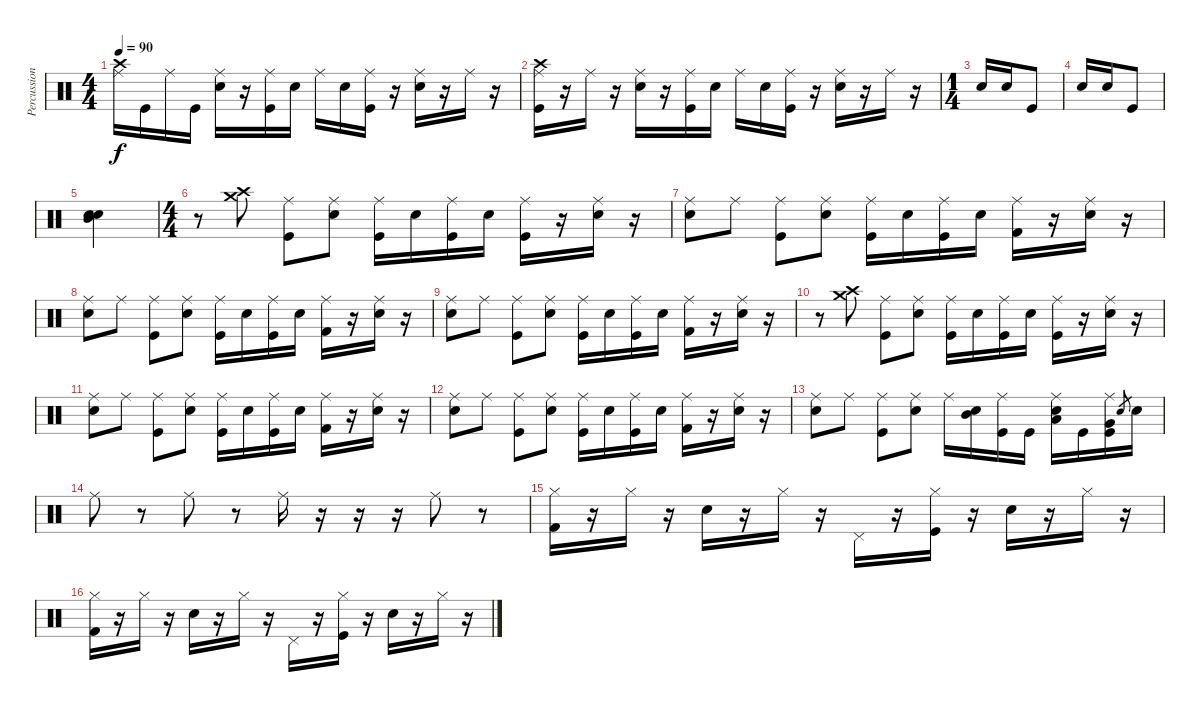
\track ("Percussions" "Percussion") {instrument percussion}
\staff {score}
\articulation defaults
\ts (4 4)
\tempo 90
\clef neutral
\ks c
("Ride (middle)" "Crash high (hit)").16{dy f} "Kick (hit)".16 "Ride (middle)".16 "Kick (hit)".16 ("Ride (middle)" "Electric Snare (hit)").16 r.16 ("Ride (middle)" "Kick (hit)").16 "Electric Snare (hit)".16 "Ride (middle)".16 "Electric Snare (hit)".16 ("Ride (middle)" "Kick (hit)").16 r.16 ("Ride (middle)" "Electric Snare (hit)").16 r.16 "Ride (middle)".16 r.16 |
("Ride (middle)" "Crash high (hit)" "Kick (hit)").16 r.16 "Ride (middle)".16 r.16 ("Ride (middle)" "Electric Snare (hit)").16 r.16 ("Ride (middle)" "Kick (hit)").16 "Electric Snare (hit)".16 "Ride (middle)".16 "Electric Snare (hit)".16 ("Ride (middle)" "Kick (hit)").16 r.16 ("Ride (middle)" "Electric Snare (hit)").16 r.16 "Ride (middle)".16 r.16 |
\ts (1 4)
"Electric Snare (hit)".16 "Electric Snare (hit)".16 "Kick (hit)".8 |
"Electric Snare (hit)".16 "Electric Snare (hit)".16 "Kick (hit)".8 |
("Mid Tom (hit)" "Electric Snare (hit)" "Electric Snare (hit)").4 |
\ts (4 4)
r.8{volume 14} ("Crash medium (hit)" "Crash high (hit)").8 ("Ride (middle)" "Kick (hit)").8 ("Ride (middle)" "Electric Snare (hit)").8 ("Ride (middle)" "Kick (hit)").16 "Electric Snare (hit)".16 ("Ride (middle)" "Kick (hit)").16 "Electric Snare (hit)".16 ("Ride (middle)" "Kick (hit)").16 r.16 ("Ride (middle)" "Electric Snare (hit)").16 r.16 |
("Ride (middle)" "Electric Snare (hit)"{tr (40 16)}).8 "Ride (middle)".8 ("Ride (middle)" "Kick (hit)").8 ("Ride (middle)" "Electric Snare (hit)").8 ("Ride (middle)" "Kick (hit)").16 "Electric Snare (hit)".16 ("Ride (middle)" "Kick (hit)").16 "Electric Snare (hit)".16 ("Ride (middle)" "Kick (hit) 2").16 r.16 ("Ride (middle)" "Electric Snare (hit)").16 r.16 |
("Ride (middle)" "Electric Snare (hit)"{tr (40 16)}).8 "Ride (middle)".8 ("Ride (middle)" "Kick (hit)").8 ("Ride (middle)" "Electric Snare (hit)").8 ("Ride (middle)" "Kick (hit)").16 "Electric Snare (hit)".16 ("Ride (middle)" "Kick (hit)").16 "Electric Snare (hit)".16 ("Ride (middle)" "Kick (hit) 2").16 r.16 ("Ride (middle)" "Electric Snare (hit)").16 r.16 |
("Ride (middle)" "Electric Snare (hit)"{tr (40 16)}).8 "Ride (middle)".8 ("Ride (middle)" "Kick (hit)").8 ("Ride (middle)" "Electric Snare (hit)").8 ("Ride (middle)" "Kick (hit)").16 "Electric Snare (hit)".16 ("Ride (middle)" "Kick (hit)").16 "Electric Snare (hit)".16 ("Ride (middle)" "Kick (hit) 2").16 r.16 ("Ride (middle)" "Electric Snare (hit)").16 r.16 |
r.8{volume 14} ("Crash medium (hit)" "Crash high (hit)").8 ("Ride (middle)" "Kick (hit)").8 ("Ride (middle)" "Electric Snare (hit)").8 ("Ride (middle)" "Kick (hit)").16 "Electric Snare (hit)".16 ("Ride (middle)" "Kick (hit)").16 "Electric Snare (hit)".16 ("Ride (middle)" "Kick (hit)").16 r.16 ("Ride (middle)" "Electric Snare (hit)").16 r.16 |
("Ride (middle)" "Electric Snare (hit)"{tr (40 16)}).8 "Ride (middle)".8 ("Ride (middle)" "Kick (hit)").8 ("Ride (middle)" "Electric Snare (hit)").8 ("Ride (middle)" "Kick (hit)").16 "Electric Snare (hit)".16 ("Ride (middle)" "Kick (hit)").16 "Electric Snare (hit)".16 ("Ride (middle)" "Kick (hit) 2").16 r.16 ("Ride (middle)" "Electric Snare (hit)").16 r.16 |
("Ride (middle)" "Electric Snare (hit)"{tr (40 16)}).8 "Ride (middle)".8 ("Ride (middle)" "Kick (hit)").8 ("Ride (middle)" "Electric Snare (hit)").8 ("Ride (middle)" "Kick (hit)").16 "Electric Snare (hit)".16 ("Ride (middle)" "Kick (hit)").16 "Electric Snare (hit)".16 ("Ride (middle)" "Kick (hit) 2").16 r.16 ("Ride (middle)" "Electric Snare (hit)").16 r.16 |
("Ride (middle)" "Electric Snare (hit)"{tr (40 16)}).8 "Ride (middle)".8 ("Ride (middle)" "Kick (hit)").8 ("Ride (middle)" "Electric Snare (hit)").8 "Ride (middle)".16 ("Mid Tom (hit)" "Electric Snare (hit)").16 ("Ride (middle)" "Kick (hit)").16 "Kick (hit)".16 ("Ride (middle)" "Low Tom (hit)" "Electric Snare (hit)").16 "Kick (hit)".16 ("Ride (middle)" "Very Low Tom (hit)" "Kick (hit)").16 "Electric Snare (hit)".8{gr} "Electric Snare (hit)".16 |
"Ride (middle)".8 r.8 "Ride (middle)".8 r.8 "Ride (middle)".16 r.16 r.16 r.16 "Ride (middle)".8 r.8 |
("Hi-Hat (closed)" "Kick (hit) 2").16 r.16 "Hi-Hat (closed)".16 r.16 "Electric Snare (hit)".16 r.16 "Hi-Hat (closed)".16 r.16 "Pedal Hi-Hat (hit)".16 r.16 ("Hi-Hat (closed)" "Kick (hit)").16 r.16 "Electric Snare (hit)".16 r.16 "Hi-Hat (closed)".16 r.16 |
("Hi-Hat (closed)" "Kick (hit) 2").16 r.16 "Hi-Hat (closed)".16 r.16 "Electric Snare (hit)".16 r.16 "Hi-Hat (closed)".16 r.16 "Pedal Hi-Hat (hit)".16 r.16 ("Hi-Hat (closed)" "Kick (hit)").16 r.16 "Electric Snare (hit)".16 r.16 "Hi-Hat (closed)".16 r.16
